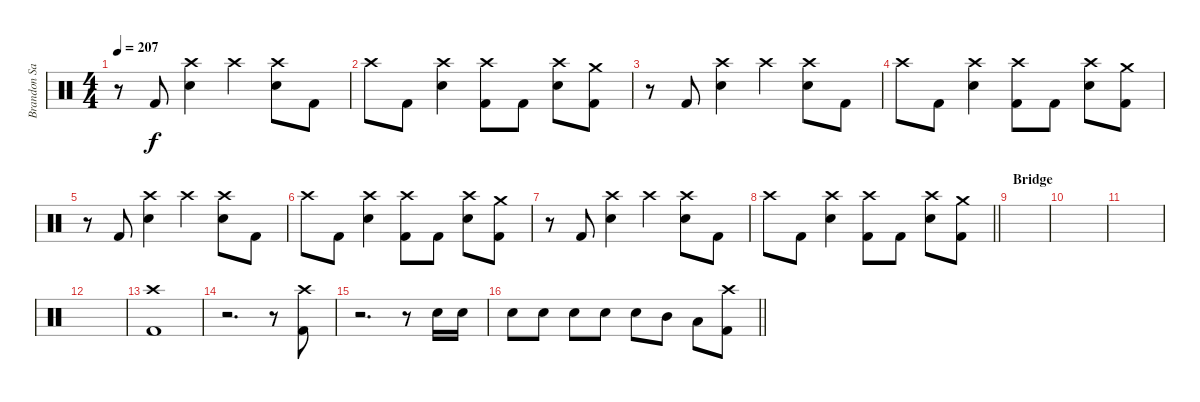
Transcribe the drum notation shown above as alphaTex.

\track ("Brandon Saller" "Brandon Sa") {instrument percussion}
\staff {score}
\articulation defaults
\ts (4 4)
\tempo 207
\clef neutral
\ks c
r.8{dy f} "Kick (hit) 2".8 ("Crash high (hit)" "Electric Snare (hit)").4 "Crash high (hit)".4 ("Crash high (hit)" "Electric Snare (hit)").8 "Kick (hit) 2".8 |
"Crash high (hit)".8 "Kick (hit) 2".8 ("Crash high (hit)" "Electric Snare (hit)").4 ("Crash high (hit)" "Kick (hit) 2").8 "Kick (hit) 2".8 ("Crash high (hit)" "Electric Snare (hit)").8 ("Crash medium (hit)" "Kick (hit) 2").8 |
r.8 "Kick (hit) 2".8 ("Crash high (hit)" "Electric Snare (hit)").4 "Crash high (hit)".4 ("Crash high (hit)" "Electric Snare (hit)").8 "Kick (hit) 2".8 |
"Crash high (hit)".8 "Kick (hit) 2".8 ("Crash high (hit)" "Electric Snare (hit)").4 ("Crash high (hit)" "Kick (hit) 2").8 "Kick (hit) 2".8 ("Crash high (hit)" "Electric Snare (hit)").8 ("Crash medium (hit)" "Kick (hit) 2").8 |
r.8 "Kick (hit) 2".8 ("Crash high (hit)" "Electric Snare (hit)").4 "Crash high (hit)".4 ("Crash high (hit)" "Electric Snare (hit)").8 "Kick (hit) 2".8 |
"Crash high (hit)".8 "Kick (hit) 2".8 ("Crash high (hit)" "Electric Snare (hit)").4 ("Crash high (hit)" "Kick (hit) 2").8 "Kick (hit) 2".8 ("Crash high (hit)" "Electric Snare (hit)").8 ("Crash medium (hit)" "Kick (hit) 2").8 |
r.8 "Kick (hit) 2".8 ("Crash high (hit)" "Electric Snare (hit)").4 "Crash high (hit)".4 ("Crash high (hit)" "Electric Snare (hit)").8 "Kick (hit) 2".8 |
\barLineRight lightlight "Crash high (hit)".8 "Kick (hit) 2".8
("Crash high (hit)" "Electric Snare (hit)").4 ("Crash high (hit)" "Kick (hit) 2").8 "Kick (hit) 2".8 ("Crash high (hit)" "Electric Snare (hit)").8 ("Crash medium (hit)" "Kick (hit) 2").8 |
\section ("" "Bridge")
|
|
|
|
("Crash high (hit)" "Kick (hit) 2").1 |
r.2{d} r.8 ("Crash high (hit)" "Kick (hit) 2").8 |
r.2{d} r.8 "Electric Snare (hit)".16 "Electric Snare (hit)".16 |
\barLineRight lightlight "Electric Snare (hit)".8 "Electric Snare (hit)".8 "Electric Snare (hit)".8 "Electric Snare (hit)".8 "Electric Snare (hit)".8 "Mid Tom (hit)".8 "Low Tom (hit)".8
("Crash high (hit)" "Kick (hit) 2").8
